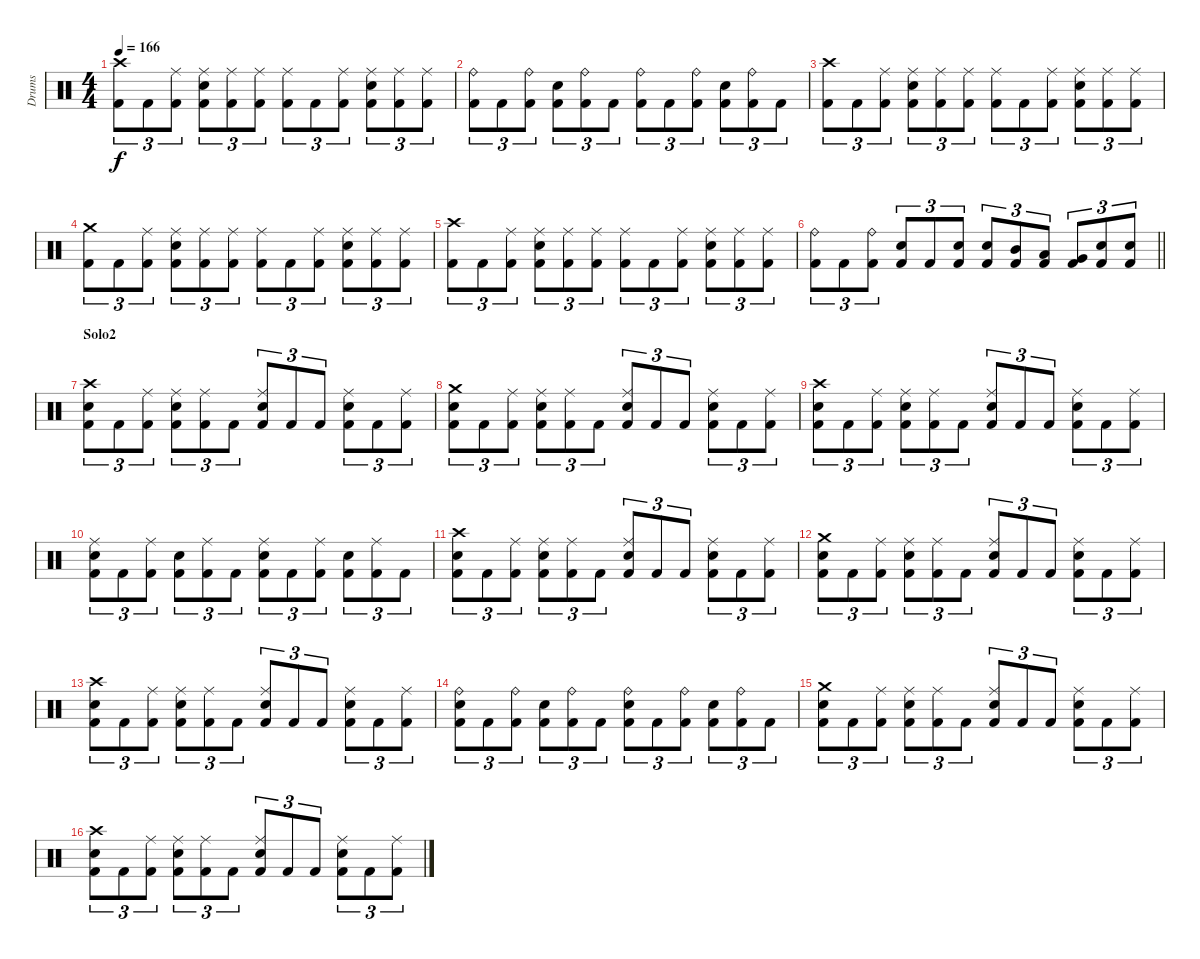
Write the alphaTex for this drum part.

\track ("Drums" "Drums") {instrument percussion}
\staff {score}
\articulation defaults
\ts (4 4)
\tempo 166
\clef neutral
\ks c
("Crash high (hit)" "Kick (hit) 2").8{tu (3 2) dy f} "Kick (hit) 2".8{tu (3 2)} ("Ride (middle)" "Kick (hit) 2").8{tu (3 2)} ("Ride (middle)" "Snare (hit) 2" "Kick (hit) 2").8{tu (3 2)} ("Ride (middle)" "Kick (hit) 2").8{tu (3 2)} ("Ride (middle)" "Kick (hit) 2").8{tu (3 2)} ("Ride (middle)" "Kick (hit) 2").8{tu (3 2)} "Kick (hit) 2".8{tu (3 2)} ("Ride (middle)" "Kick (hit) 2").8{tu (3 2)} ("Ride (middle)" "Snare (hit) 2" "Kick (hit) 2").8{tu (3 2)} ("Ride (middle)" "Kick (hit) 2").8{tu (3 2)} ("Ride (middle)" "Kick (hit) 2").8{tu (3 2)} |
("Ride (bell)" "Kick (hit) 2").8{tu (3 2)} "Kick (hit) 2".8{tu (3 2)} ("Ride (bell)" "Kick (hit) 2").8{tu (3 2)} ("Snare (hit) 2" "Kick (hit) 2").8{tu (3 2)} ("Ride (bell)" "Kick (hit) 2").8{tu (3 2)} "Kick (hit) 2".8{tu (3 2)} ("Ride (bell)" "Kick (hit) 2").8{tu (3 2)} "Kick (hit) 2".8{tu (3 2)} ("Ride (bell)" "Kick (hit) 2").8{tu (3 2)} ("Snare (hit) 2" "Kick (hit) 2").8{tu (3 2)} ("Ride (bell)" "Kick (hit) 2").8{tu (3 2)} "Kick (hit) 2".8{tu (3 2)} |
("Crash high (hit)" "Kick (hit) 2").8{tu (3 2)} "Kick (hit) 2".8{tu (3 2)} ("Ride (middle)" "Kick (hit) 2").8{tu (3 2)} ("Ride (middle)" "Snare (hit) 2" "Kick (hit) 2").8{tu (3 2)} ("Ride (middle)" "Kick (hit) 2").8{tu (3 2)} ("Ride (middle)" "Kick (hit) 2").8{tu (3 2)} ("Ride (middle)" "Kick (hit) 2").8{tu (3 2)} "Kick (hit) 2".8{tu (3 2)} ("Ride (middle)" "Kick (hit) 2").8{tu (3 2)} ("Ride (middle)" "Snare (hit) 2" "Kick (hit) 2").8{tu (3 2)} ("Ride (middle)" "Kick (hit) 2").8{tu (3 2)} ("Ride (middle)" "Kick (hit) 2").8{tu (3 2)} |
("Crash medium (hit)" "Kick (hit) 2").8{tu (3 2)} "Kick (hit) 2".8{tu (3 2)} ("Ride (middle)" "Kick (hit) 2").8{tu (3 2)} ("Ride (middle)" "Snare (hit) 2" "Kick (hit) 2").8{tu (3 2)} ("Ride (middle)" "Kick (hit) 2").8{tu (3 2)} ("Ride (middle)" "Kick (hit) 2").8{tu (3 2)} ("Ride (middle)" "Kick (hit) 2").8{tu (3 2)} "Kick (hit) 2".8{tu (3 2)} ("Ride (middle)" "Kick (hit) 2").8{tu (3 2)} ("Ride (middle)" "Snare (hit) 2" "Kick (hit) 2").8{tu (3 2)} ("Ride (middle)" "Kick (hit) 2").8{tu (3 2)} ("Ride (middle)" "Kick (hit) 2").8{tu (3 2)} |
("Crash high (hit)" "Kick (hit) 2").8{tu (3 2)} "Kick (hit) 2".8{tu (3 2)} ("Ride (middle)" "Kick (hit) 2").8{tu (3 2)} ("Ride (middle)" "Snare (hit) 2" "Kick (hit) 2").8{tu (3 2)} ("Ride (middle)" "Kick (hit) 2").8{tu (3 2)} ("Ride (middle)" "Kick (hit) 2").8{tu (3 2)} ("Ride (middle)" "Kick (hit) 2").8{tu (3 2)} "Kick (hit) 2".8{tu (3 2)} ("Ride (middle)" "Kick (hit) 2").8{tu (3 2)} ("Ride (middle)" "Snare (hit) 2" "Kick (hit) 2").8{tu (3 2)} ("Ride (middle)" "Kick (hit) 2").8{tu (3 2)} ("Ride (middle)" "Kick (hit) 2").8{tu (3 2)} |
\barLineRight lightlight
("Ride (bell)" "Kick (hit) 2").8{tu (3 2)} "Kick (hit) 2".8{tu (3 2)} ("Ride (bell)" "Kick (hit) 2").8{tu (3 2)} ("Snare (hit) 2" "Kick (hit) 2").8{tu (3 2)} "Kick (hit) 2".8{tu (3 2)} ("Snare (hit) 2" "Kick (hit) 2").8{tu (3 2)} ("Snare (hit) 2" "Kick (hit) 2").8{tu (3 2)} ("Mid Tom (hit)" "Kick (hit) 2").8{tu (3 2)} ("Low Tom (hit)" "Kick (hit) 2").8{tu (3 2)} ("Very Low Tom (hit)" "Kick (hit) 2").8{tu (3 2)} ("Snare (hit) 2" "Kick (hit) 2").8{tu (3 2)} ("Snare (hit) 2" "Kick (hit) 2").8{tu (3 2)} |
\section ("" "Solo2")
("Crash high (hit)" "Snare (hit) 2" "Kick (hit) 2").8{tu (3 2)} "Kick (hit) 2".8{tu (3 2)} ("Ride (middle)" "Kick (hit) 2").8{tu (3 2)} ("Ride (middle)" "Snare (hit) 2" "Kick (hit) 2").8{tu (3 2)} ("Ride (middle)" "Kick (hit) 2").8{tu (3 2)} "Kick (hit) 2".8{tu (3 2)} ("Ride (middle)" "Snare (hit) 2" "Kick (hit) 2").8{tu (3 2)} "Kick (hit) 2".8{tu (3 2)} "Kick (hit) 2".8{tu (3 2)} ("Ride (middle)" "Snare (hit) 2" "Kick (hit) 2").8{tu (3 2)} "Kick (hit) 2".8{tu (3 2)} ("Ride (middle)" "Kick (hit) 2").8{tu (3 2)} |
("Crash medium (hit)" "Snare (hit) 2" "Kick (hit) 2").8{tu (3 2)} "Kick (hit) 2".8{tu (3 2)} ("Ride (middle)" "Kick (hit) 2").8{tu (3 2)} ("Ride (middle)" "Snare (hit) 2" "Kick (hit) 2").8{tu (3 2)} ("Ride (middle)" "Kick (hit) 2").8{tu (3 2)} "Kick (hit) 2".8{tu (3 2)} ("Ride (middle)" "Snare (hit) 2" "Kick (hit) 2").8{tu (3 2)} "Kick (hit) 2".8{tu (3 2)} "Kick (hit) 2".8{tu (3 2)} ("Ride (middle)" "Snare (hit) 2" "Kick (hit) 2").8{tu (3 2)} "Kick (hit) 2".8{tu (3 2)} ("Ride (middle)" "Kick (hit) 2").8{tu (3 2)} |
("Crash high (hit)" "Snare (hit) 2" "Kick (hit) 2").8{tu (3 2)} "Kick (hit) 2".8{tu (3 2)} ("Ride (middle)" "Kick (hit) 2").8{tu (3 2)} ("Ride (middle)" "Snare (hit) 2" "Kick (hit) 2").8{tu (3 2)} ("Ride (middle)" "Kick (hit) 2").8{tu (3 2)} "Kick (hit) 2".8{tu (3 2)} ("Ride (middle)" "Snare (hit) 2" "Kick (hit) 2").8{tu (3 2)} "Kick (hit) 2".8{tu (3 2)} "Kick (hit) 2".8{tu (3 2)} ("Ride (middle)" "Snare (hit) 2" "Kick (hit) 2").8{tu (3 2)} "Kick (hit) 2".8{tu (3 2)} ("Ride (middle)" "Kick (hit) 2").8{tu (3 2)} |
("Ride (middle)" "Snare (hit) 2" "Kick (hit) 2").8{tu (3 2)} "Kick (hit) 2".8{tu (3 2)} ("Ride (middle)" "Kick (hit) 2").8{tu (3 2)} ("Snare (hit) 2" "Kick (hit) 2").8{tu (3 2)} ("Ride (middle)" "Kick (hit) 2").8{tu (3 2)} "Kick (hit) 2".8{tu (3 2)} ("Ride (middle)" "Snare (hit) 2" "Kick (hit) 2").8{tu (3 2)} "Kick (hit) 2".8{tu (3 2)} ("Ride (middle)" "Kick (hit) 2").8{tu (3 2)} ("Snare (hit) 2" "Kick (hit) 2").8{tu (3 2)} ("Ride (middle)" "Kick (hit) 2").8{tu (3 2)} "Kick (hit) 2".8{tu (3 2)} |
("Crash high (hit)" "Snare (hit) 2" "Kick (hit) 2").8{tu (3 2)} "Kick (hit) 2".8{tu (3 2)} ("Ride (middle)" "Kick (hit) 2").8{tu (3 2)} ("Ride (middle)" "Snare (hit) 2" "Kick (hit) 2").8{tu (3 2)} ("Ride (middle)" "Kick (hit) 2").8{tu (3 2)} "Kick (hit) 2".8{tu (3 2)} ("Ride (middle)" "Snare (hit) 2" "Kick (hit) 2").8{tu (3 2)} "Kick (hit) 2".8{tu (3 2)} "Kick (hit) 2".8{tu (3 2)} ("Ride (middle)" "Snare (hit) 2" "Kick (hit) 2").8{tu (3 2)} "Kick (hit) 2".8{tu (3 2)} ("Ride (middle)" "Kick (hit) 2").8{tu (3 2)} |
("Crash medium (hit)" "Snare (hit) 2" "Kick (hit) 2").8{tu (3 2)} "Kick (hit) 2".8{tu (3 2)} ("Ride (middle)" "Kick (hit) 2").8{tu (3 2)} ("Ride (middle)" "Snare (hit) 2" "Kick (hit) 2").8{tu (3 2)} ("Ride (middle)" "Kick (hit) 2").8{tu (3 2)} "Kick (hit) 2".8{tu (3 2)} ("Ride (middle)" "Snare (hit) 2" "Kick (hit) 2").8{tu (3 2)} "Kick (hit) 2".8{tu (3 2)} "Kick (hit) 2".8{tu (3 2)} ("Ride (middle)" "Snare (hit) 2" "Kick (hit) 2").8{tu (3 2)} "Kick (hit) 2".8{tu (3 2)} ("Ride (middle)" "Kick (hit) 2").8{tu (3 2)} |
("Crash high (hit)" "Snare (hit) 2" "Kick (hit) 2").8{tu (3 2)} "Kick (hit) 2".8{tu (3 2)} ("Ride (middle)" "Kick (hit) 2").8{tu (3 2)} ("Ride (middle)" "Snare (hit) 2" "Kick (hit) 2").8{tu (3 2)} ("Ride (middle)" "Kick (hit) 2").8{tu (3 2)} "Kick (hit) 2".8{tu (3 2)} ("Ride (middle)" "Snare (hit) 2" "Kick (hit) 2").8{tu (3 2)} "Kick (hit) 2".8{tu (3 2)} "Kick (hit) 2".8{tu (3 2)} ("Ride (middle)" "Snare (hit) 2" "Kick (hit) 2").8{tu (3 2)} "Kick (hit) 2".8{tu (3 2)} ("Ride (middle)" "Kick (hit) 2").8{tu (3 2)} |
("Ride (bell)" "Snare (hit) 2" "Kick (hit) 2").8{tu (3 2)} "Kick (hit) 2".8{tu (3 2)} ("Ride (bell)" "Kick (hit) 2").8{tu (3 2)} ("Snare (hit) 2" "Kick (hit) 2").8{tu (3 2)} ("Ride (bell)" "Kick (hit) 2").8{tu (3 2)} "Kick (hit) 2".8{tu (3 2)} ("Ride (bell)" "Snare (hit) 2" "Kick (hit) 2").8{tu (3 2)} "Kick (hit) 2".8{tu (3 2)} ("Ride (bell)" "Kick (hit) 2").8{tu (3 2)} ("Snare (hit) 2" "Kick (hit) 2").8{tu (3 2)} ("Ride (bell)" "Kick (hit) 2").8{tu (3 2)} "Kick (hit) 2".8{tu (3 2)} |
("Crash medium (hit)" "Snare (hit) 2" "Kick (hit) 2").8{tu (3 2)} "Kick (hit) 2".8{tu (3 2)} ("Ride (middle)" "Kick (hit) 2").8{tu (3 2)} ("Ride (middle)" "Snare (hit) 2" "Kick (hit) 2").8{tu (3 2)} ("Ride (middle)" "Kick (hit) 2").8{tu (3 2)} "Kick (hit) 2".8{tu (3 2)} ("Ride (middle)" "Snare (hit) 2" "Kick (hit) 2").8{tu (3 2)} "Kick (hit) 2".8{tu (3 2)} "Kick (hit) 2".8{tu (3 2)} ("Ride (middle)" "Snare (hit) 2" "Kick (hit) 2").8{tu (3 2)} "Kick (hit) 2".8{tu (3 2)} ("Ride (middle)" "Kick (hit) 2").8{tu (3 2)} |
("Crash high (hit)" "Snare (hit) 2" "Kick (hit) 2").8{tu (3 2)} "Kick (hit) 2".8{tu (3 2)} ("Ride (middle)" "Kick (hit) 2").8{tu (3 2)} ("Ride (middle)" "Snare (hit) 2" "Kick (hit) 2").8{tu (3 2)} ("Ride (middle)" "Kick (hit) 2").8{tu (3 2)} "Kick (hit) 2".8{tu (3 2)} ("Ride (middle)" "Snare (hit) 2" "Kick (hit) 2").8{tu (3 2)} "Kick (hit) 2".8{tu (3 2)} "Kick (hit) 2".8{tu (3 2)} ("Ride (middle)" "Snare (hit) 2" "Kick (hit) 2").8{tu (3 2)} "Kick (hit) 2".8{tu (3 2)} ("Ride (middle)" "Kick (hit) 2").8{tu (3 2)}
